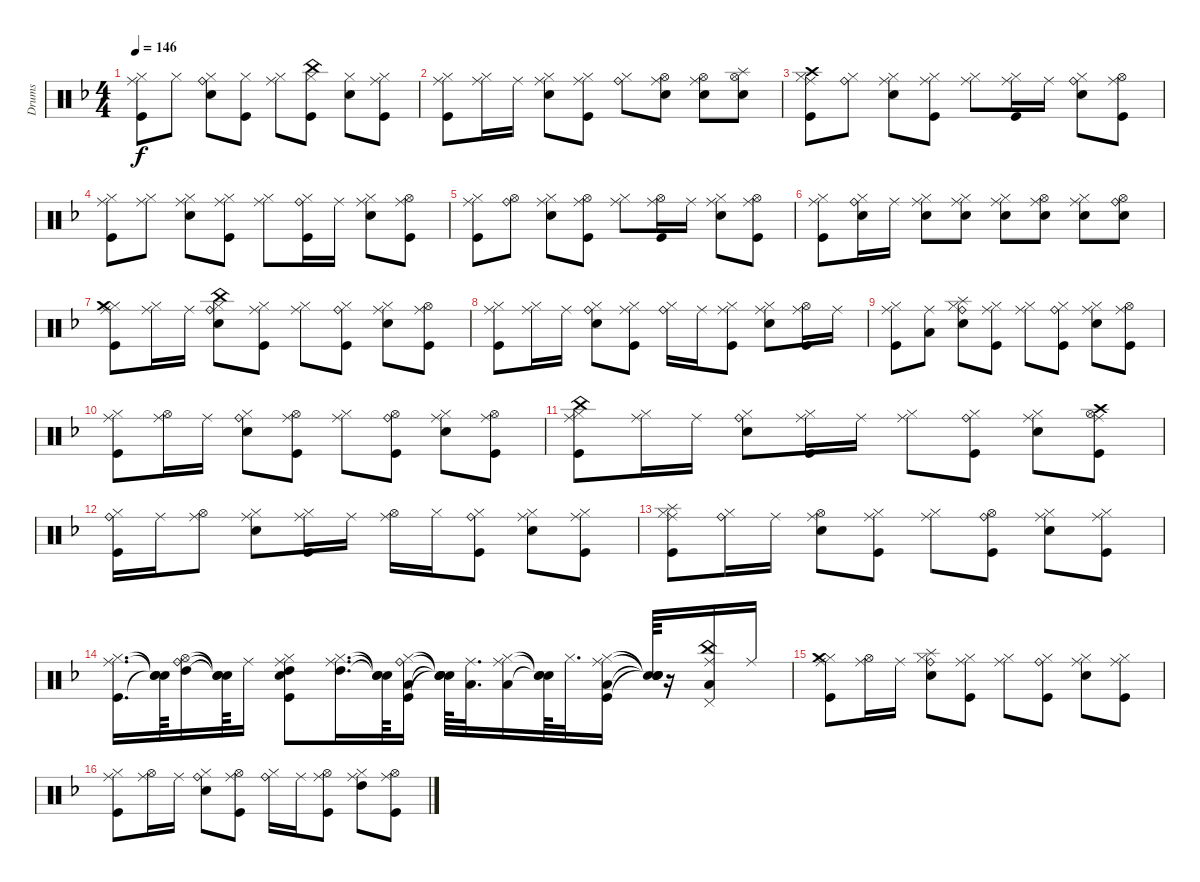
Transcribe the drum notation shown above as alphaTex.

\track ("Drums" "Drums") {instrument percussion}
\staff {score}
\articulation defaults
\ts (4 4)
\tempo 146
\clef neutral
\ks f
("Ride (middle)" "Kick (hit)" "Hi-Hat (closed)").8{dy f} "Hi-Hat (closed)".8 ("Snare (hit) 2" "Hi-Hat (closed)" "Ride (bell)").8 ("Kick (hit)" "Hi-Hat (closed)").8 ("Hi-Hat (closed)" "Ride (middle)").8 ("Kick (hit)" "Hi-Hat (closed)" "China (hit)").8 ("Snare (hit) 2" "Hi-Hat (closed)").8 ("Ride (middle)" "Kick (hit)" "Hi-Hat (closed)").8 |
("Hi-Hat (closed)" "Ride (middle)" "Kick (hit)").8 ("Hi-Hat (closed)" "Ride (middle)").16 "Ride (middle)".16 ("Ride (middle)" "Snare (hit) 2" "Hi-Hat (closed)").8 ("Kick (hit)" "Hi-Hat (closed)" "Ride (middle)").8 ("Hi-Hat (closed)" "Ride (bell)").8 ("Hi-Hat (open)" "Ride (middle)" "Snare (hit) 2").8 ("Ride (middle)" "Snare (hit) 2" "Hi-Hat (open)").8 ("Snare (hit) 2" "Hi-Hat (open)" "Splash (hit)").8 |
("Kick (hit)" "Hi-Hat (closed)" "Crash high (hit)" "Ride (middle)").8 ("Hi-Hat (closed)" "Ride (bell)").8 ("Snare (hit) 2" "Hi-Hat (closed)" "Ride (middle)").8 ("Hi-Hat (closed)" "Ride (middle)" "Kick (hit)").8 ("Hi-Hat (closed)" "Ride (middle)").8 ("Ride (middle)" "Kick (hit)" "Hi-Hat (closed)").16 "Ride (middle)".16 ("Snare (hit) 2" "Hi-Hat (closed)" "Ride (bell)").8 ("Hi-Hat (open)" "Ride (middle)" "Kick (hit)").8 |
("Kick (hit)" "Hi-Hat (closed)" "Ride (middle)").8 ("Hi-Hat (closed)" "Ride (middle)").8 ("Snare (hit) 2" "Hi-Hat (closed)" "Ride (middle)").8 ("Ride (middle)" "Kick (hit)" "Hi-Hat (closed)").8 ("Hi-Hat (closed)" "Ride (middle)").8 ("Kick (hit)" "Hi-Hat (closed)" "Ride (bell)").16 "Ride (middle)".16 ("Snare (hit) 2" "Hi-Hat (closed)" "Ride (middle)").8 ("Kick (hit)" "Hi-Hat (open)" "Ride (middle)").8 |
("Kick (hit)" "Hi-Hat (closed)" "Ride (middle)").8 ("Hi-Hat (open)" "Ride (bell)").8 ("Snare (hit) 2" "Hi-Hat (closed)" "Ride (middle)").8 ("Kick (hit)" "Hi-Hat (open)" "Ride (middle)").8 ("Hi-Hat (closed)" "Ride (middle)").8 ("Kick (hit)" "Hi-Hat (open)" "Ride (middle)").16 "Ride (middle)".16 ("Snare (hit) 2" "Hi-Hat (closed)" "Ride (middle)").8 ("Kick (hit)" "Hi-Hat (open)" "Ride (middle)").8 |
("Kick (hit)" "Hi-Hat (closed)" "Ride (middle)").8 ("Snare (hit) 2" "Hi-Hat (closed)" "Ride (bell)").16 "Ride (middle)".16 ("Ride (middle)" "Snare (hit) 2" "Hi-Hat (closed)").8 ("Snare (hit) 2" "Hi-Hat (closed)" "Ride (middle)").8 ("Snare (hit) 2" "Hi-Hat (closed)" "Ride (middle)").8 ("Snare (hit) 2" "Hi-Hat (open)" "Ride (middle)").8 ("Snare (hit) 2" "Hi-Hat (closed)" "Ride (middle)").8 ("Snare (hit) 2" "Hi-Hat (open)" "Ride (bell)").8 |
("Kick (hit)" "Hi-Hat (closed)" "Ride (middle)" "Crash medium (hit)").8 ("Hi-Hat (closed)" "Ride (middle)").16 "Ride (middle)".16 ("Hi-Hat (closed)" "China (hit)" "Snare (hit) 2" "Ride (bell)").8 ("Ride (middle)" "Kick (hit)" "Hi-Hat (closed)").8 ("Hi-Hat (closed)" "Ride (middle)").8 ("Kick (hit)" "Hi-Hat (closed)" "Ride (bell)").8 ("Snare (hit) 2" "Hi-Hat (closed)" "Ride (middle)").8 ("Kick (hit)" "Hi-Hat (open)" "Ride (middle)").8 |
("Kick (hit)" "Hi-Hat (closed)" "Ride (middle)").8 ("Hi-Hat (closed)" "Ride (middle)").16 "Ride (middle)".16 ("Snare (hit) 2" "Hi-Hat (closed)" "Ride (bell)").8 ("Kick (hit)" "Hi-Hat (closed)" "Ride (middle)").8 ("Hi-Hat (closed)" "Ride (bell)").16 "Ride (middle)".16 ("Kick (hit)" "Hi-Hat (closed)" "Ride (middle)").8 ("Snare (hit) 2" "Hi-Hat (closed)" "Ride (middle)").8 ("Ride (middle)" "Kick (hit)" "Hi-Hat (open)").16 "Ride (middle)".16 |
("Kick (hit)" "Hi-Hat (closed)" "Ride (middle)").8 ("Low Floor Tom (hit)" "Ride (middle)").8 ("Snare (hit) 2" "Hi-Hat (closed)" "Ride (bell)" "Splash (hit)").8 ("Kick (hit)" "Hi-Hat (closed)" "Ride (middle)").8 ("Hi-Hat (closed)" "Ride (middle)").8 ("Kick (hit)" "Hi-Hat (closed)" "Ride (bell)").8 ("Ride (middle)" "Snare (hit) 2" "Hi-Hat (closed)").8 ("Kick (hit)" "Hi-Hat (open)" "Ride (middle)").8 |
("Kick (hit)" "Hi-Hat (closed)" "Ride (middle)").8 ("Hi-Hat (open)" "Ride (middle)").16 "Ride (middle)".16 ("Hi-Hat (closed)" "Ride (bell)" "Snare (hit) 2").8 ("Kick (hit)" "Hi-Hat (open)" "Ride (middle)").8 ("Hi-Hat (closed)" "Ride (middle)").8 ("Kick (hit)" "Hi-Hat (open)" "Ride (bell)").8 ("Ride (middle)" "Snare (hit) 2" "Hi-Hat (closed)").8 ("Kick (hit)" "Hi-Hat (open)" "Ride (middle)").8 |
("Hi-Hat (closed)" "Ride (middle)" "Kick (hit)" "China (hit)").8 ("Hi-Hat (closed)" "Ride (middle)").16 "Ride (middle)".16 ("Snare (hit) 2" "Hi-Hat (closed)" "Ride (bell)").8 ("Kick (hit)" "Hi-Hat (closed)" "Ride (middle)").16 "Ride (middle)".16 ("Hi-Hat (closed)" "Ride (middle)").8 ("Hi-Hat (closed)" "Ride (bell)" "Kick (hit)").8 ("Snare (hit) 2" "Hi-Hat (closed)" "Ride (middle)").8 ("Ride (middle)" "Hi-Hat (open)" "Kick (hit)" "Crash high (hit)").8 |
("Hi-Hat (closed)" "Ride (bell)" "Kick (hit)").16 "Ride (middle)".16 ("Hi-Hat (open)" "Ride (middle)").8 ("Snare (hit) 2" "Hi-Hat (closed)" "Ride (middle)").8 ("Kick (hit)" "Hi-Hat (closed)" "Ride (middle)").16 "Ride (middle)".16 ("Hi-Hat (open)" "Ride (middle)").16 "Hi-Hat (closed)".16 ("Hi-Hat (closed)" "Ride (bell)" "Kick (hit)").8 ("Snare (hit) 2" "Hi-Hat (closed)" "Ride (middle)").8 ("Kick (hit)" "Hi-Hat (closed)" "Ride (middle)").8 |
("Ride (middle)" "Splash (hit)" "Kick (hit)" "Hi-Hat (closed)").8 ("Hi-Hat (closed)" "Ride (bell)").16 "Ride (middle)".16 ("Snare (hit) 2" "Hi-Hat (open)" "Ride (middle)").8 ("Hi-Hat (closed)" "Ride (middle)" "Kick (hit)").8 ("Hi-Hat (closed)" "Ride (middle)").8 ("Kick (hit)" "Hi-Hat (open)" "Ride (bell)").8 ("Hi-Hat (closed)" "Ride (middle)" "Snare (hit) 2").8 ("Ride (middle)" "Kick (hit)" "Hi-Hat (closed)").8 |
("Kick (hit)" "Hi-Hat (closed)" "Ride (middle)").16{d} ("Snare (hit)"{t} "Snare (hit)"{t} "Snare (hit)"{t}).64 ("High Tom (hit)" "Ride (bell)" "Hi-Hat (open)").16 ("Snare (hit)"{t} "Snare (hit)"{t} "Snare (hit)"{t}).64 "Ride (middle)".16 ("Kick (hit)" "Snare (hit) 2" "Hi-Hat (closed)" "High Tom (hit)" "Ride (middle)").8 ("Hi-Hat (closed)" "High Tom (hit)" "Ride (middle)").16{d} ("Snare (hit)"{t} "Snare (hit)"{t} "Snare (hit)"{t}).64 ("Kick (hit)" "Hi-Hat (closed)" "Low Tom (hit)" "Ride (bell)").16 ("Snare (hit)"{t} "Snare (hit)"{t} "Snare (hit)"{t} "Snare (hit)"{t}).64 ("Low Tom (hit)" "Ride (middle)").32{d} ("Low Tom (hit)" "Ride (middle)" "Hi-Hat (closed)").16 ("Snare (hit)"{t} "Snare (hit)"{t} "Snare (hit)"{t}).64 "Hi-Hat (closed)".32{d} ("Kick (hit)" "Low Floor Tom (hit)" "Hi-Hat (closed)" "Ride (middle)").16 ("Snare (hit)"{t} "Snare (hit)"{t} "Snare (hit)"{t} "Snare (hit)"{t}).64 r.16 ("Ride (middle)" "Pedal Hi-Hat (hit)" "China (hit)" "Low Floor Tom (hit)").16 "Ride (middle)".16 |
("Kick (hit)" "Hi-Hat (closed)" "Ride (middle)" "Crash medium (hit)").8 ("Hi-Hat (open)" "Ride (middle)").16 "Ride (middle)".16 ("Snare (hit) 2" "Hi-Hat (closed)" "Ride (bell)" "Splash (hit)").8 ("Kick (hit)" "Hi-Hat (closed)" "Ride (middle)").8 ("Hi-Hat (closed)" "Ride (middle)").8 ("Ride (bell)" "Kick (hit)" "Hi-Hat (closed)").8 ("Snare (hit) 2" "Hi-Hat (closed)" "Ride (middle)").8 ("Kick (hit)" "Hi-Hat (closed)" "Ride (middle)").8 |
("Kick (hit)" "Hi-Hat (closed)" "Ride (middle)").8 ("Hi-Hat (open)" "Ride (middle)").16 "Ride (middle)".16 ("Snare (hit) 2" "Hi-Hat (closed)" "Ride (bell)").8 ("Hi-Hat (open)" "Ride (middle)" "Kick (hit)").8 ("Hi-Hat (closed)" "Ride (bell)").16 "Ride (middle)".16 ("Ride (middle)" "Kick (hit)" "Hi-Hat (open)").8 ("Hi-Hat (closed)" "Ride (middle)" "High Tom (hit)").8 ("Ride (middle)" "Kick (hit)" "Hi-Hat (open)").8
